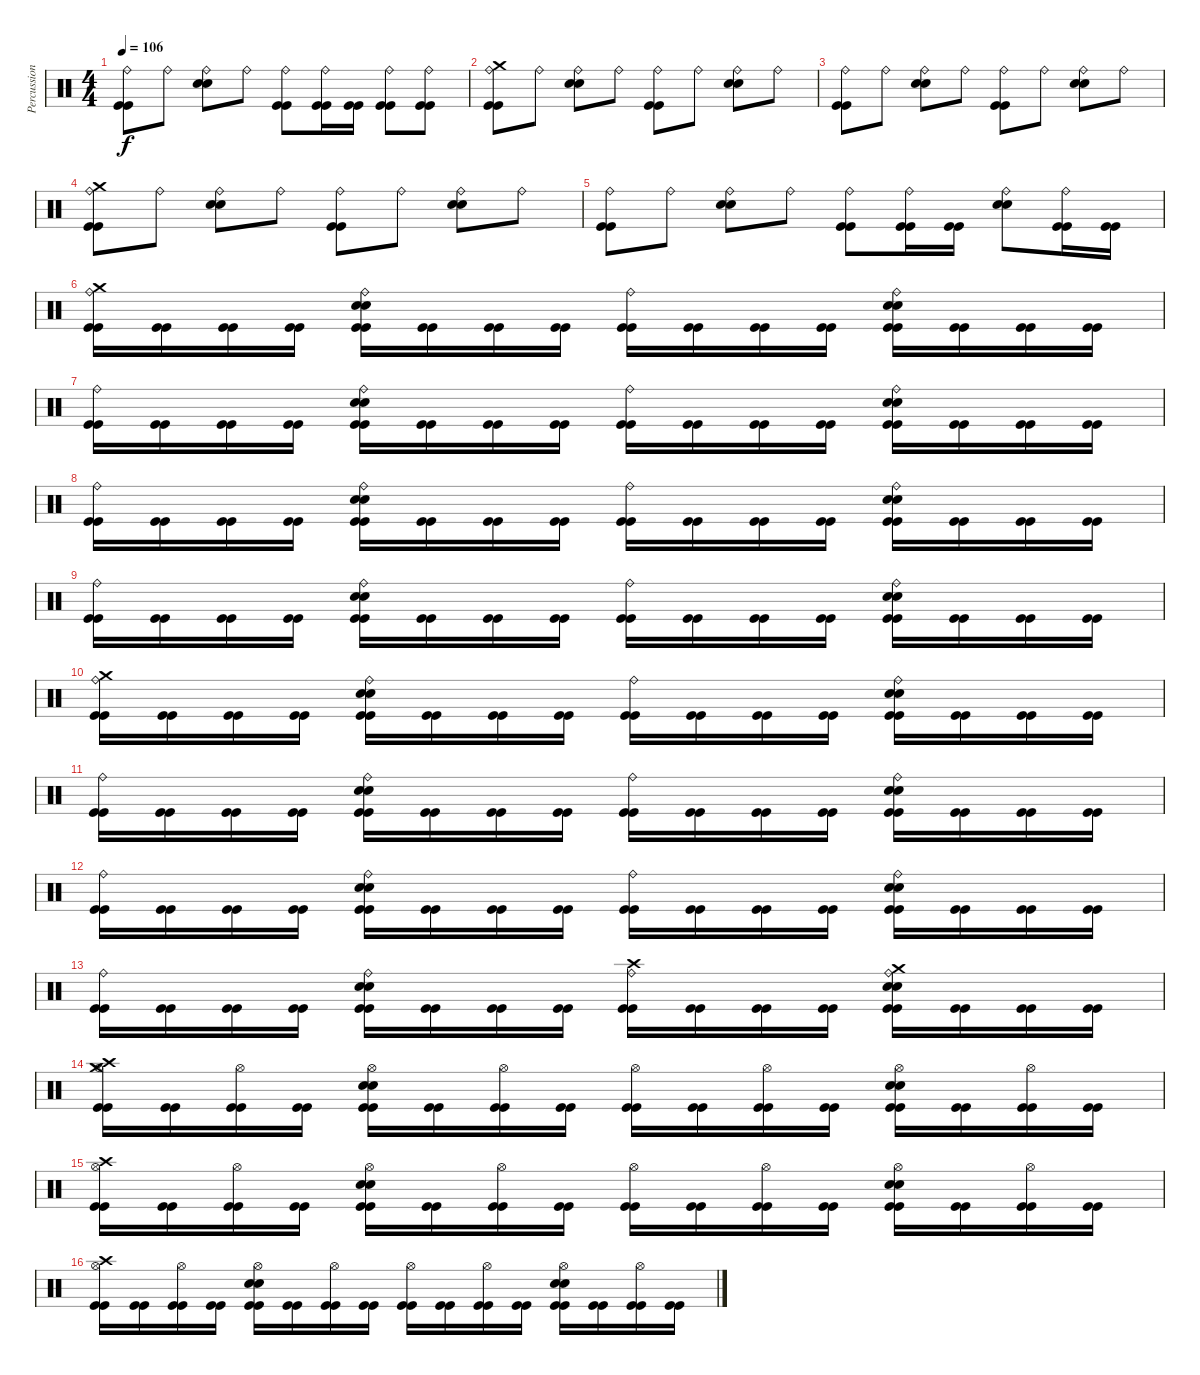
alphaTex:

\track ("Percussion" "Percussion") {instrument percussion}
\staff {score}
\articulation defaults
\ts (4 4)
\tempo 106
\clef neutral
\ks c
("Ride (bell)" "Kick (hit)" "Kick (hit)").8{dy f} "Ride (bell)".8 ("Ride (bell)" "Snare (hit) 2" "Snare (hit) 2").8 "Ride (bell)".8 ("Ride (bell)" "Kick (hit)" "Kick (hit)").8 ("Ride (bell)" "Kick (hit)" "Kick (hit)").16 ("Kick (hit)" "Kick (hit)").16 ("Ride (bell)" "Kick (hit)" "Kick (hit)").8 ("Ride (bell)" "Kick (hit)" "Kick (hit)").8 |
("Crash medium (hit)" "Ride (bell)" "Kick (hit)" "Kick (hit)").8 "Ride (bell)".8 ("Ride (bell)" "Snare (hit) 2" "Snare (hit) 2").8 "Ride (bell)".8 ("Ride (bell)" "Kick (hit)" "Kick (hit)").8 "Ride (bell)".8 ("Ride (bell)" "Snare (hit) 2" "Snare (hit) 2").8 "Ride (bell)".8 |
("Ride (bell)" "Kick (hit)" "Kick (hit)").8 "Ride (bell)".8 ("Ride (bell)" "Snare (hit) 2" "Snare (hit) 2").8 "Ride (bell)".8 ("Ride (bell)" "Kick (hit)" "Kick (hit)").8 "Ride (bell)".8 ("Ride (bell)" "Snare (hit) 2" "Snare (hit) 2").8 "Ride (bell)".8 |
("Crash medium (hit)" "Ride (bell)" "Kick (hit)" "Kick (hit)").8 "Ride (bell)".8 ("Ride (bell)" "Snare (hit) 2" "Snare (hit) 2").8 "Ride (bell)".8 ("Ride (bell)" "Kick (hit)" "Kick (hit)").8 "Ride (bell)".8 ("Ride (bell)" "Snare (hit) 2" "Snare (hit) 2").8 "Ride (bell)".8 |
("Ride (bell)" "Kick (hit)" "Kick (hit)").8 "Ride (bell)".8 ("Ride (bell)" "Snare (hit) 2" "Snare (hit) 2").8 "Ride (bell)".8 ("Ride (bell)" "Kick (hit)" "Kick (hit)").8 ("Ride (bell)" "Kick (hit)" "Kick (hit)").16 ("Kick (hit)" "Kick (hit)").16 ("Ride (bell)" "Snare (hit) 2" "Snare (hit) 2").8 ("Ride (bell)" "Kick (hit)" "Kick (hit)").16 ("Kick (hit)" "Kick (hit)").16 |
("Ride (bell)" "Crash medium (hit)" "Kick (hit)" "Kick (hit)").16 ("Kick (hit)" "Kick (hit)").16 ("Kick (hit)" "Kick (hit)").16 ("Kick (hit)" "Kick (hit)").16 ("Ride (bell)" "Snare (hit) 2" "Snare (hit) 2" "Kick (hit)" "Kick (hit)").16 ("Kick (hit)" "Kick (hit)").16 ("Kick (hit)" "Kick (hit)").16 ("Kick (hit)" "Kick (hit)").16 ("Ride (bell)" "Kick (hit)" "Kick (hit)").16 ("Kick (hit)" "Kick (hit)").16 ("Kick (hit)" "Kick (hit)").16 ("Kick (hit)" "Kick (hit)").16 ("Ride (bell)" "Snare (hit) 2" "Snare (hit) 2" "Kick (hit)" "Kick (hit)").16 ("Kick (hit)" "Kick (hit)").16 ("Kick (hit)" "Kick (hit)").16 ("Kick (hit)" "Kick (hit)").16 |
("Ride (bell)" "Kick (hit)" "Kick (hit)").16 ("Kick (hit)" "Kick (hit)").16 ("Kick (hit)" "Kick (hit)").16 ("Kick (hit)" "Kick (hit)").16 ("Ride (bell)" "Snare (hit) 2" "Snare (hit) 2" "Kick (hit)" "Kick (hit)").16 ("Kick (hit)" "Kick (hit)").16 ("Kick (hit)" "Kick (hit)").16 ("Kick (hit)" "Kick (hit)").16 ("Ride (bell)" "Kick (hit)" "Kick (hit)").16 ("Kick (hit)" "Kick (hit)").16 ("Kick (hit)" "Kick (hit)").16 ("Kick (hit)" "Kick (hit)").16 ("Ride (bell)" "Snare (hit) 2" "Snare (hit) 2" "Kick (hit)" "Kick (hit)").16 ("Kick (hit)" "Kick (hit)").16 ("Kick (hit)" "Kick (hit)").16 ("Kick (hit)" "Kick (hit)").16 |
("Ride (bell)" "Kick (hit)" "Kick (hit)").16 ("Kick (hit)" "Kick (hit)").16 ("Kick (hit)" "Kick (hit)").16 ("Kick (hit)" "Kick (hit)").16 ("Ride (bell)" "Snare (hit) 2" "Snare (hit) 2" "Kick (hit)" "Kick (hit)").16 ("Kick (hit)" "Kick (hit)").16 ("Kick (hit)" "Kick (hit)").16 ("Kick (hit)" "Kick (hit)").16 ("Ride (bell)" "Kick (hit)" "Kick (hit)").16 ("Kick (hit)" "Kick (hit)").16 ("Kick (hit)" "Kick (hit)").16 ("Kick (hit)" "Kick (hit)").16 ("Ride (bell)" "Snare (hit) 2" "Snare (hit) 2" "Kick (hit)" "Kick (hit)").16 ("Kick (hit)" "Kick (hit)").16 ("Kick (hit)" "Kick (hit)").16 ("Kick (hit)" "Kick (hit)").16 |
("Ride (bell)" "Kick (hit)" "Kick (hit)").16 ("Kick (hit)" "Kick (hit)").16 ("Kick (hit)" "Kick (hit)").16 ("Kick (hit)" "Kick (hit)").16 ("Ride (bell)" "Snare (hit) 2" "Snare (hit) 2" "Kick (hit)" "Kick (hit)").16 ("Kick (hit)" "Kick (hit)").16 ("Kick (hit)" "Kick (hit)").16 ("Kick (hit)" "Kick (hit)").16 ("Ride (bell)" "Kick (hit)" "Kick (hit)").16 ("Kick (hit)" "Kick (hit)").16 ("Kick (hit)" "Kick (hit)").16 ("Kick (hit)" "Kick (hit)").16 ("Ride (bell)" "Snare (hit) 2" "Snare (hit) 2" "Kick (hit)" "Kick (hit)").16 ("Kick (hit)" "Kick (hit)").16 ("Kick (hit)" "Kick (hit)").16 ("Kick (hit)" "Kick (hit)").16 |
("Ride (bell)" "Crash medium (hit)" "Kick (hit)" "Kick (hit)").16 ("Kick (hit)" "Kick (hit)").16 ("Kick (hit)" "Kick (hit)").16 ("Kick (hit)" "Kick (hit)").16 ("Ride (bell)" "Snare (hit) 2" "Snare (hit) 2" "Kick (hit)" "Kick (hit)").16 ("Kick (hit)" "Kick (hit)").16 ("Kick (hit)" "Kick (hit)").16 ("Kick (hit)" "Kick (hit)").16 ("Ride (bell)" "Kick (hit)" "Kick (hit)").16 ("Kick (hit)" "Kick (hit)").16 ("Kick (hit)" "Kick (hit)").16 ("Kick (hit)" "Kick (hit)").16 ("Ride (bell)" "Snare (hit) 2" "Snare (hit) 2" "Kick (hit)" "Kick (hit)").16 ("Kick (hit)" "Kick (hit)").16 ("Kick (hit)" "Kick (hit)").16 ("Kick (hit)" "Kick (hit)").16 |
("Ride (bell)" "Kick (hit)" "Kick (hit)").16 ("Kick (hit)" "Kick (hit)").16 ("Kick (hit)" "Kick (hit)").16 ("Kick (hit)" "Kick (hit)").16 ("Ride (bell)" "Snare (hit) 2" "Snare (hit) 2" "Kick (hit)" "Kick (hit)").16 ("Kick (hit)" "Kick (hit)").16 ("Kick (hit)" "Kick (hit)").16 ("Kick (hit)" "Kick (hit)").16 ("Ride (bell)" "Kick (hit)" "Kick (hit)").16 ("Kick (hit)" "Kick (hit)").16 ("Kick (hit)" "Kick (hit)").16 ("Kick (hit)" "Kick (hit)").16 ("Ride (bell)" "Snare (hit) 2" "Snare (hit) 2" "Kick (hit)" "Kick (hit)").16 ("Kick (hit)" "Kick (hit)").16 ("Kick (hit)" "Kick (hit)").16 ("Kick (hit)" "Kick (hit)").16 |
("Ride (bell)" "Kick (hit)" "Kick (hit)").16 ("Kick (hit)" "Kick (hit)").16 ("Kick (hit)" "Kick (hit)").16 ("Kick (hit)" "Kick (hit)").16 ("Ride (bell)" "Snare (hit) 2" "Snare (hit) 2" "Kick (hit)" "Kick (hit)").16 ("Kick (hit)" "Kick (hit)").16 ("Kick (hit)" "Kick (hit)").16 ("Kick (hit)" "Kick (hit)").16 ("Ride (bell)" "Kick (hit)" "Kick (hit)").16 ("Kick (hit)" "Kick (hit)").16 ("Kick (hit)" "Kick (hit)").16 ("Kick (hit)" "Kick (hit)").16 ("Ride (bell)" "Snare (hit) 2" "Snare (hit) 2" "Kick (hit)" "Kick (hit)").16 ("Kick (hit)" "Kick (hit)").16 ("Kick (hit)" "Kick (hit)").16 ("Kick (hit)" "Kick (hit)").16 |
("Ride (bell)" "Kick (hit)" "Kick (hit)").16 ("Kick (hit)" "Kick (hit)").16 ("Kick (hit)" "Kick (hit)").16 ("Kick (hit)" "Kick (hit)").16 ("Ride (bell)" "Snare (hit) 2" "Snare (hit) 2" "Kick (hit)" "Kick (hit)").16 ("Kick (hit)" "Kick (hit)").16 ("Kick (hit)" "Kick (hit)").16 ("Kick (hit)" "Kick (hit)").16 ("Crash high (hit)" "Ride (bell)" "Kick (hit)" "Kick (hit)").16 ("Kick (hit)" "Kick (hit)").16 ("Kick (hit)" "Kick (hit)").16 ("Kick (hit)" "Kick (hit)").16 ("Crash medium (hit)" "Ride (bell)" "Snare (hit) 2" "Snare (hit) 2" "Kick (hit)" "Kick (hit)").16 ("Kick (hit)" "Kick (hit)").16 ("Kick (hit)" "Kick (hit)").16 ("Kick (hit)" "Kick (hit)").16 |
("Crash medium (hit)" "Crash high (hit)" "Hi-Hat (open)" "Kick (hit)" "Kick (hit)").16 ("Kick (hit)" "Kick (hit)").16 ("Hi-Hat (open)" "Kick (hit)" "Kick (hit)").16 ("Kick (hit)" "Kick (hit)").16 ("Snare (hit) 2" "Snare (hit) 2" "Hi-Hat (open)" "Kick (hit)" "Kick (hit)").16 ("Kick (hit)" "Kick (hit)").16 ("Hi-Hat (open)" "Kick (hit)" "Kick (hit)").16 ("Kick (hit)" "Kick (hit)").16 ("Hi-Hat (open)" "Kick (hit)" "Kick (hit)").16 ("Kick (hit)" "Kick (hit)").16 ("Hi-Hat (open)" "Kick (hit)" "Kick (hit)").16 ("Kick (hit)" "Kick (hit)").16 ("Snare (hit) 2" "Snare (hit) 2" "Hi-Hat (open)" "Kick (hit)" "Kick (hit)").16 ("Kick (hit)" "Kick (hit)").16 ("Hi-Hat (open)" "Kick (hit)" "Kick (hit)").16 ("Kick (hit)" "Kick (hit)").16 |
("Crash high (hit)" "Hi-Hat (open)" "Kick (hit)" "Kick (hit)").16 ("Kick (hit)" "Kick (hit)").16 ("Hi-Hat (open)" "Kick (hit)" "Kick (hit)").16 ("Kick (hit)" "Kick (hit)").16 ("Snare (hit) 2" "Snare (hit) 2" "Hi-Hat (open)" "Kick (hit)" "Kick (hit)").16 ("Kick (hit)" "Kick (hit)").16 ("Hi-Hat (open)" "Kick (hit)" "Kick (hit)").16 ("Kick (hit)" "Kick (hit)").16 ("Hi-Hat (open)" "Kick (hit)" "Kick (hit)").16 ("Kick (hit)" "Kick (hit)").16 ("Hi-Hat (open)" "Kick (hit)" "Kick (hit)").16 ("Kick (hit)" "Kick (hit)").16 ("Snare (hit) 2" "Snare (hit) 2" "Hi-Hat (open)" "Kick (hit)" "Kick (hit)").16 ("Kick (hit)" "Kick (hit)").16 ("Hi-Hat (open)" "Kick (hit)" "Kick (hit)").16 ("Kick (hit)" "Kick (hit)").16 |
("Crash high (hit)" "Hi-Hat (open)" "Kick (hit)" "Kick (hit)").16 ("Kick (hit)" "Kick (hit)").16 ("Hi-Hat (open)" "Kick (hit)" "Kick (hit)").16 ("Kick (hit)" "Kick (hit)").16 ("Snare (hit) 2" "Snare (hit) 2" "Hi-Hat (open)" "Kick (hit)" "Kick (hit)").16 ("Kick (hit)" "Kick (hit)").16 ("Hi-Hat (open)" "Kick (hit)" "Kick (hit)").16 ("Kick (hit)" "Kick (hit)").16 ("Hi-Hat (open)" "Kick (hit)" "Kick (hit)").16 ("Kick (hit)" "Kick (hit)").16 ("Hi-Hat (open)" "Kick (hit)" "Kick (hit)").16 ("Kick (hit)" "Kick (hit)").16 ("Snare (hit) 2" "Snare (hit) 2" "Hi-Hat (open)" "Kick (hit)" "Kick (hit)").16 ("Kick (hit)" "Kick (hit)").16 ("Hi-Hat (open)" "Kick (hit)" "Kick (hit)").16 ("Kick (hit)" "Kick (hit)").16
